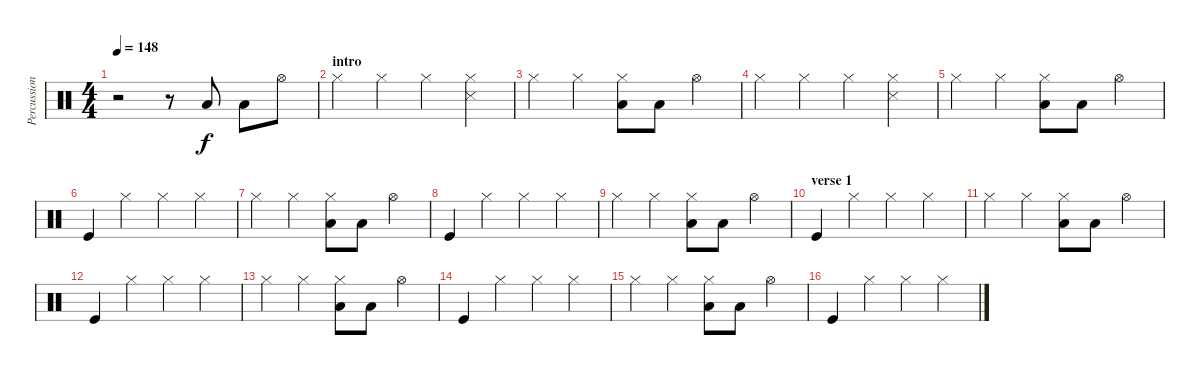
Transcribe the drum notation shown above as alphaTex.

\track ("Percussions" "Percussion") {instrument percussion}
\staff {score}
\articulation defaults
\ts (4 4)
\tempo 148
\clef neutral
\ks c
r.2{dy f} r.8 "Low Tom (hit)".8 "Low Tom (hit)".8 "Hi-Hat (open)".8 |
\section ("" "intro")
"Hi-Hat (closed)".4 "Hi-Hat (closed)".4 "Hi-Hat (closed)".4 ("Hi-Hat (closed)" "Snare (side stick) 3").4 |
"Hi-Hat (closed)".4 "Hi-Hat (closed)".4 ("Hi-Hat (closed)" "Low Tom (hit)").8 "Low Tom (hit)".8 "Hi-Hat (open)".4 |
"Hi-Hat (closed)".4 "Hi-Hat (closed)".4 "Hi-Hat (closed)".4 ("Hi-Hat (closed)" "Snare (side stick) 3").4 |
"Hi-Hat (closed)".4 "Hi-Hat (closed)".4 ("Hi-Hat (closed)" "Low Tom (hit)").8 "Low Tom (hit)".8 "Hi-Hat (open)".4 |
"Kick (hit)".4 "Hi-Hat (closed)".4 "Hi-Hat (closed)".4 "Hi-Hat (closed)".4 |
"Hi-Hat (closed)".4 "Hi-Hat (closed)".4 ("Hi-Hat (closed)" "Low Tom (hit)").8 "Low Tom (hit)".8 "Hi-Hat (open)".4 |
"Kick (hit)".4 "Hi-Hat (closed)".4 "Hi-Hat (closed)".4 "Hi-Hat (closed)".4 |
"Hi-Hat (closed)".4 "Hi-Hat (closed)".4 ("Hi-Hat (closed)" "Low Tom (hit)").8 "Low Tom (hit)".8 "Hi-Hat (open)".4 |
\section ("" "verse 1")
"Kick (hit)".4 "Hi-Hat (closed)".4 "Hi-Hat (closed)".4 "Hi-Hat (closed)".4 |
"Hi-Hat (closed)".4 "Hi-Hat (closed)".4 ("Hi-Hat (closed)" "Low Tom (hit)").8 "Low Tom (hit)".8 "Hi-Hat (open)".4 |
"Kick (hit)".4 "Hi-Hat (closed)".4 "Hi-Hat (closed)".4 "Hi-Hat (closed)".4 |
"Hi-Hat (closed)".4 "Hi-Hat (closed)".4 ("Hi-Hat (closed)" "Low Tom (hit)").8 "Low Tom (hit)".8 "Hi-Hat (open)".4 |
"Kick (hit)".4 "Hi-Hat (closed)".4 "Hi-Hat (closed)".4 "Hi-Hat (closed)".4 |
"Hi-Hat (closed)".4 "Hi-Hat (closed)".4 ("Hi-Hat (closed)" "Low Tom (hit)").8 "Low Tom (hit)".8 "Hi-Hat (open)".4 |
"Kick (hit)".4 "Hi-Hat (closed)".4 "Hi-Hat (closed)".4 "Hi-Hat (closed)".4
